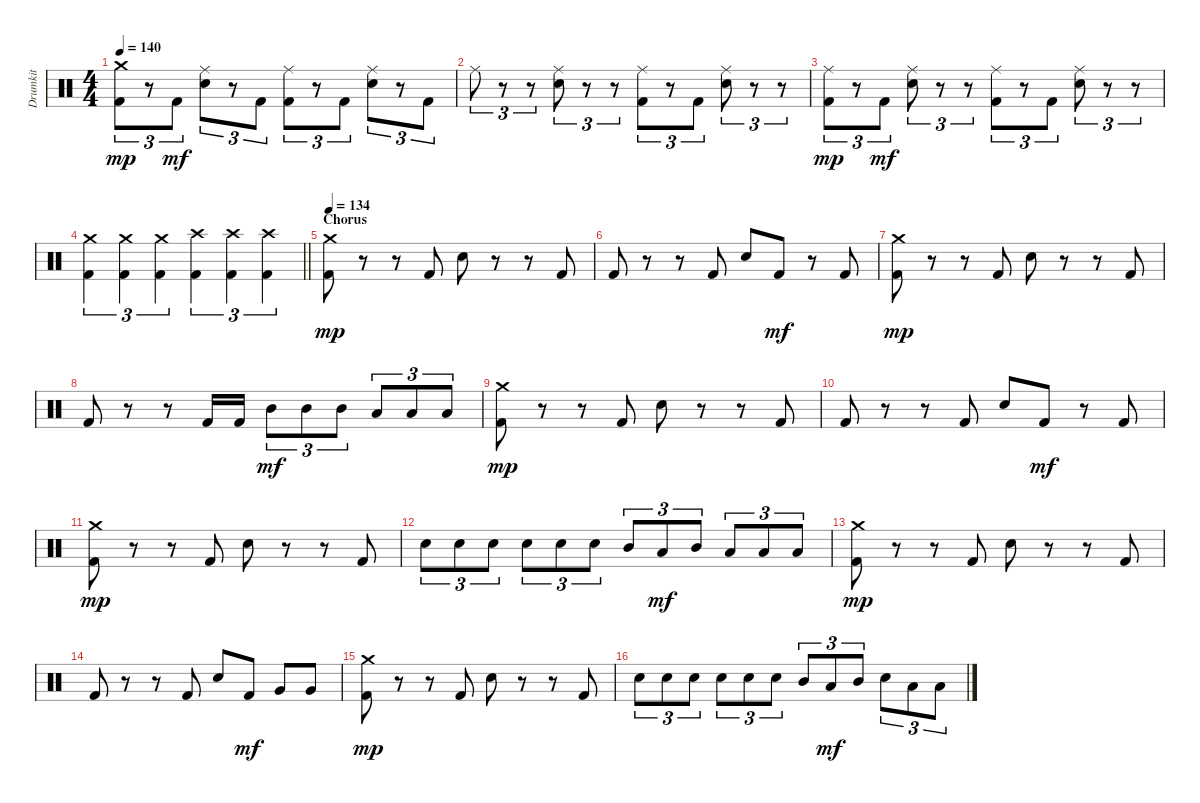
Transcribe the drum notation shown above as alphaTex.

\track ("Drumkit" "Drumkit") {instrument percussion}
\staff {score}
\articulation defaults
\ts (4 4)
\tempo 140
\clef neutral
\ks c
("Kick (hit) 2" "Crash medium (hit)").8{tu (3 2) dy mp} r.8{tu (3 2)} "Kick (hit) 2".8{tu (3 2) dy mf} ("Snare (hit) 2" "Ride (middle)").8{tu (3 2)} r.8{tu (3 2)} "Kick (hit) 2".8{tu (3 2)} ("Ride (middle)" "Kick (hit) 2").8{tu (3 2)} r.8{tu (3 2)} "Kick (hit) 2".8{tu (3 2)} ("Snare (hit) 2" "Ride (middle)").8{tu (3 2)} r.8{tu (3 2)} "Kick (hit) 2".8{tu (3 2)} |
"Ride (middle)".8{tu (3 2)} r.8{tu (3 2)} r.8{tu (3 2)} ("Snare (hit) 2" "Ride (middle)").8{tu (3 2)} r.8{tu (3 2)} r.8{tu (3 2)} ("Kick (hit) 2" "Ride (middle)").8{tu (3 2)} r.8{tu (3 2)} "Kick (hit) 2".8{tu (3 2)} ("Snare (hit) 2" "Ride (middle)").8{tu (3 2)} r.8{tu (3 2)} r.8{tu (3 2)} |
("Kick (hit) 2" "Ride (middle)").8{tu (3 2) dy mp} r.8{tu (3 2)} "Kick (hit) 2".8{tu (3 2) dy mf} ("Snare (hit) 2" "Ride (middle)").8{tu (3 2)} r.8{tu (3 2)} r.8{tu (3 2)} ("Ride (middle)" "Kick (hit) 2").8{tu (3 2)} r.8{tu (3 2)} "Kick (hit) 2".8{tu (3 2)} ("Snare (hit) 2" "Ride (middle)").8{tu (3 2)} r.8{tu (3 2)} r.8{tu (3 2)} |
\barLineRight lightlight
("Kick (hit) 2" "Crash medium (hit)").4{tu (3 2)} ("Kick (hit) 2" "Crash medium (hit)").4{tu (3 2)} ("Kick (hit) 2" "Crash medium (hit)").4{tu (3 2)} ("Kick (hit) 2" "Crash high (hit)").4{tu (3 2)} ("Kick (hit) 2" "Crash high (hit)").4{tu (3 2)} ("Kick (hit) 2" "Crash high (hit)").4{tu (3 2)} |
\section ("" "Chorus")
\tempo 134
("Kick (hit) 2" "Crash medium (hit)").8{dy mp} r.8 r.8 "Kick (hit) 2".8 "Snare (hit) 2".8 r.8 r.8 "Kick (hit) 2".8 |
"Kick (hit) 2".8 r.8 r.8 "Kick (hit) 2".8 "Snare (hit) 2".8 "Kick (hit) 2".8{dy mf} r.8 "Kick (hit) 2".8 |
("Kick (hit) 2" "Crash medium (hit)").8{dy mp} r.8 r.8 "Kick (hit) 2".8 "Snare (hit) 2".8 r.8 r.8 "Kick (hit) 2".8 |
"Kick (hit) 2".8 r.8 r.8 "Kick (hit) 2".16 "Kick (hit) 2".16 "Mid Tom (hit)".8{tu (3 2) dy mf} "Mid Tom (hit)".8{tu (3 2)} "Mid Tom (hit)".8{tu (3 2)} "Low Tom (hit)".8{tu (3 2)} "Low Tom (hit)".8{tu (3 2)} "Low Tom (hit)".8{tu (3 2)} |
("Kick (hit) 2" "Crash medium (hit)").8{dy mp} r.8 r.8 "Kick (hit) 2".8 "Snare (hit) 2".8 r.8 r.8 "Kick (hit) 2".8 |
"Kick (hit) 2".8 r.8 r.8 "Kick (hit) 2".8 "Snare (hit) 2".8 "Kick (hit) 2".8{dy mf} r.8 "Kick (hit) 2".8 |
("Kick (hit) 2" "Crash medium (hit)").8{dy mp} r.8 r.8 "Kick (hit) 2".8 "Snare (hit) 2".8 r.8 r.8 "Kick (hit) 2".8 |
"Snare (hit) 2".8{tu (3 2)} "Snare (hit) 2".8{tu (3 2)} "Snare (hit) 2".8{tu (3 2)} "Snare (hit) 2".8{tu (3 2)} "Snare (hit) 2".8{tu (3 2)} "Snare (hit) 2".8{tu (3 2)} "Mid Tom (hit)".8{tu (3 2)} "Low Tom (hit)".8{tu (3 2) dy mf} "Mid Tom (hit)".8{tu (3 2)} "Low Tom (hit)".8{tu (3 2)} "Low Tom (hit)".8{tu (3 2)} "Low Tom (hit)".8{tu (3 2)} |
("Kick (hit) 2" "Crash medium (hit)").8{dy mp} r.8 r.8 "Kick (hit) 2".8 "Snare (hit) 2".8 r.8 r.8 "Kick (hit) 2".8 |
"Kick (hit) 2".8 r.8 r.8 "Kick (hit) 2".8 "Snare (hit) 2".8 "Kick (hit) 2".8{dy mf} "Very Low Tom (hit)".8 "Very Low Tom (hit)".8 |
("Kick (hit) 2" "Crash medium (hit)").8{dy mp} r.8 r.8 "Kick (hit) 2".8 "Snare (hit) 2".8 r.8 r.8 "Kick (hit) 2".8 |
"Snare (hit) 2".8{tu (3 2)} "Snare (hit) 2".8{tu (3 2)} "Snare (hit) 2".8{tu (3 2)} "Snare (hit) 2".8{tu (3 2)} "Snare (hit) 2".8{tu (3 2)} "Snare (hit) 2".8{tu (3 2)} "Mid Tom (hit)".8{tu (3 2)} "Low Tom (hit)".8{tu (3 2) dy mf} "Mid Tom (hit)".8{tu (3 2)} "Snare (hit) 2".8{tu (3 2)} "Low Tom (hit)".8{tu (3 2)} "Low Tom (hit)".8{tu (3 2)}
